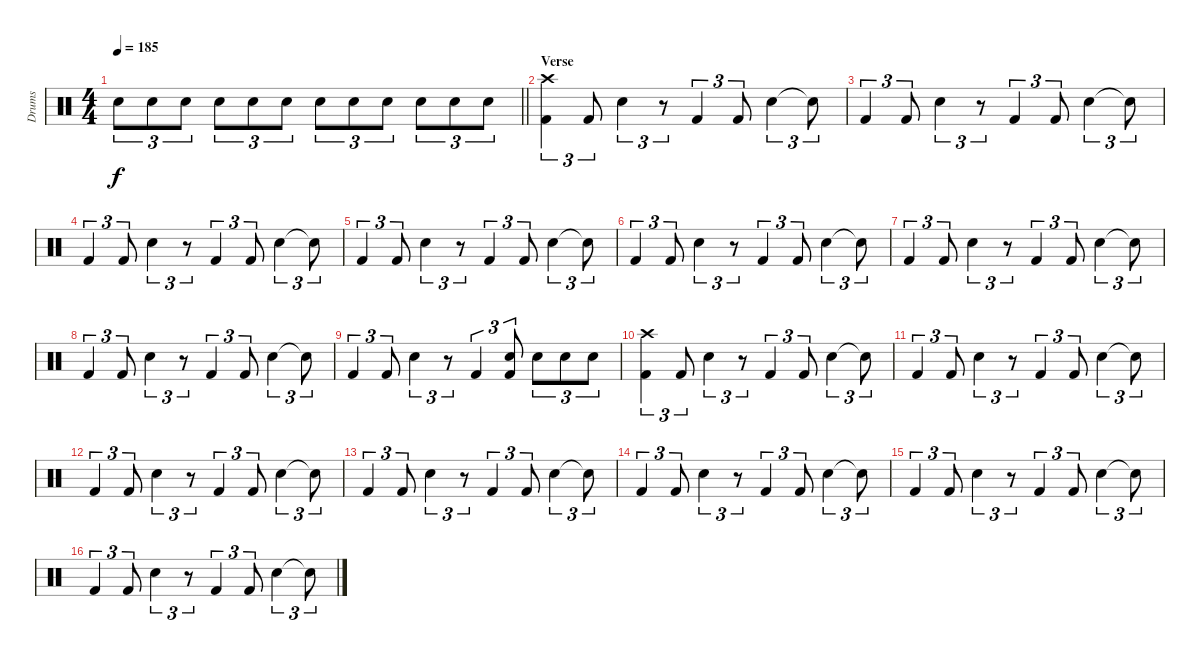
\track ("Drums" "Drums") {instrument percussion}
\staff {score}
\articulation defaults
\ts (4 4)
\tempo 185
\clef neutral
\barLineRight lightlight
\ks c "Snare (hit) 2".8{tu (3 2) dy f} "Snare (hit) 2".8{tu (3 2)} "Snare (hit) 2".8{tu (3 2)} "Snare (hit) 2".8{tu (3 2)} "Snare (hit) 2".8{tu (3 2)} "Snare (hit) 2".8{tu (3 2)} "Snare (hit) 2".8{tu (3 2)} "Snare (hit) 2".8{tu (3 2)} "Snare (hit) 2".8{tu (3 2)} "Snare (hit) 2".8{tu (3 2)} "Snare (hit) 2".8{tu (3 2)} "Snare (hit) 2".8{tu (3 2)}
|
\section ("" "Verse")
("Crash high (hit)" "Kick (hit) 2").4{tu (3 2)} "Kick (hit) 2".8{tu (3 2)} "Snare (hit) 2".4{tu (3 2)} r.8{tu (3 2)} "Kick (hit) 2".4{tu (3 2)} "Kick (hit) 2".8{tu (3 2)} "Snare (hit) 2".4{tu (3 2)} "Snare (hit)"{t}.8{tu (3 2)} |
"Kick (hit) 2".4{tu (3 2)} "Kick (hit) 2".8{tu (3 2)} "Snare (hit) 2".4{tu (3 2)} r.8{tu (3 2)} "Kick (hit) 2".4{tu (3 2)} "Kick (hit) 2".8{tu (3 2)} "Snare (hit) 2".4{tu (3 2)} "Snare (hit)"{t}.8{tu (3 2)} |
"Kick (hit) 2".4{tu (3 2)} "Kick (hit) 2".8{tu (3 2)} "Snare (hit) 2".4{tu (3 2)} r.8{tu (3 2)} "Kick (hit) 2".4{tu (3 2)} "Kick (hit) 2".8{tu (3 2)} "Snare (hit) 2".4{tu (3 2)} "Snare (hit)"{t}.8{tu (3 2)} |
"Kick (hit) 2".4{tu (3 2)} "Kick (hit) 2".8{tu (3 2)} "Snare (hit) 2".4{tu (3 2)} r.8{tu (3 2)} "Kick (hit) 2".4{tu (3 2)} "Kick (hit) 2".8{tu (3 2)} "Snare (hit) 2".4{tu (3 2)} "Snare (hit)"{t}.8{tu (3 2)} |
"Kick (hit) 2".4{tu (3 2)} "Kick (hit) 2".8{tu (3 2)} "Snare (hit) 2".4{tu (3 2)} r.8{tu (3 2)} "Kick (hit) 2".4{tu (3 2)} "Kick (hit) 2".8{tu (3 2)} "Snare (hit) 2".4{tu (3 2)} "Snare (hit)"{t}.8{tu (3 2)} |
"Kick (hit) 2".4{tu (3 2)} "Kick (hit) 2".8{tu (3 2)} "Snare (hit) 2".4{tu (3 2)} r.8{tu (3 2)} "Kick (hit) 2".4{tu (3 2)} "Kick (hit) 2".8{tu (3 2)} "Snare (hit) 2".4{tu (3 2)} "Snare (hit)"{t}.8{tu (3 2)} |
"Kick (hit) 2".4{tu (3 2)} "Kick (hit) 2".8{tu (3 2)} "Snare (hit) 2".4{tu (3 2)} r.8{tu (3 2)} "Kick (hit) 2".4{tu (3 2)} "Kick (hit) 2".8{tu (3 2)} "Snare (hit) 2".4{tu (3 2)} "Snare (hit)"{t}.8{tu (3 2)} |
"Kick (hit) 2".4{tu (3 2)} "Kick (hit) 2".8{tu (3 2)} "Snare (hit) 2".4{tu (3 2)} r.8{tu (3 2)} "Kick (hit) 2".4{tu (3 2)} ("Snare (hit) 2" "Kick (hit) 2").8{tu (3 2)} "Snare (hit) 2".8{tu (3 2)} "Snare (hit) 2".8{tu (3 2)} "Snare (hit) 2".8{tu (3 2)} |
("Crash high (hit)" "Kick (hit) 2").4{tu (3 2)} "Kick (hit) 2".8{tu (3 2)} "Snare (hit) 2".4{tu (3 2)} r.8{tu (3 2)} "Kick (hit) 2".4{tu (3 2)} "Kick (hit) 2".8{tu (3 2)} "Snare (hit) 2".4{tu (3 2)} "Snare (hit)"{t}.8{tu (3 2)} |
"Kick (hit) 2".4{tu (3 2)} "Kick (hit) 2".8{tu (3 2)} "Snare (hit) 2".4{tu (3 2)} r.8{tu (3 2)} "Kick (hit) 2".4{tu (3 2)} "Kick (hit) 2".8{tu (3 2)} "Snare (hit) 2".4{tu (3 2)} "Snare (hit)"{t}.8{tu (3 2)} |
"Kick (hit) 2".4{tu (3 2)} "Kick (hit) 2".8{tu (3 2)} "Snare (hit) 2".4{tu (3 2)} r.8{tu (3 2)} "Kick (hit) 2".4{tu (3 2)} "Kick (hit) 2".8{tu (3 2)} "Snare (hit) 2".4{tu (3 2)} "Snare (hit)"{t}.8{tu (3 2)} |
"Kick (hit) 2".4{tu (3 2)} "Kick (hit) 2".8{tu (3 2)} "Snare (hit) 2".4{tu (3 2)} r.8{tu (3 2)} "Kick (hit) 2".4{tu (3 2)} "Kick (hit) 2".8{tu (3 2)} "Snare (hit) 2".4{tu (3 2)} "Snare (hit)"{t}.8{tu (3 2)} |
"Kick (hit) 2".4{tu (3 2)} "Kick (hit) 2".8{tu (3 2)} "Snare (hit) 2".4{tu (3 2)} r.8{tu (3 2)} "Kick (hit) 2".4{tu (3 2)} "Kick (hit) 2".8{tu (3 2)} "Snare (hit) 2".4{tu (3 2)} "Snare (hit)"{t}.8{tu (3 2)} |
"Kick (hit) 2".4{tu (3 2)} "Kick (hit) 2".8{tu (3 2)} "Snare (hit) 2".4{tu (3 2)} r.8{tu (3 2)} "Kick (hit) 2".4{tu (3 2)} "Kick (hit) 2".8{tu (3 2)} "Snare (hit) 2".4{tu (3 2)} "Snare (hit)"{t}.8{tu (3 2)} |
"Kick (hit) 2".4{tu (3 2)} "Kick (hit) 2".8{tu (3 2)} "Snare (hit) 2".4{tu (3 2)} r.8{tu (3 2)} "Kick (hit) 2".4{tu (3 2)} "Kick (hit) 2".8{tu (3 2)} "Snare (hit) 2".4{tu (3 2)} "Snare (hit)"{t}.8{tu (3 2)}
